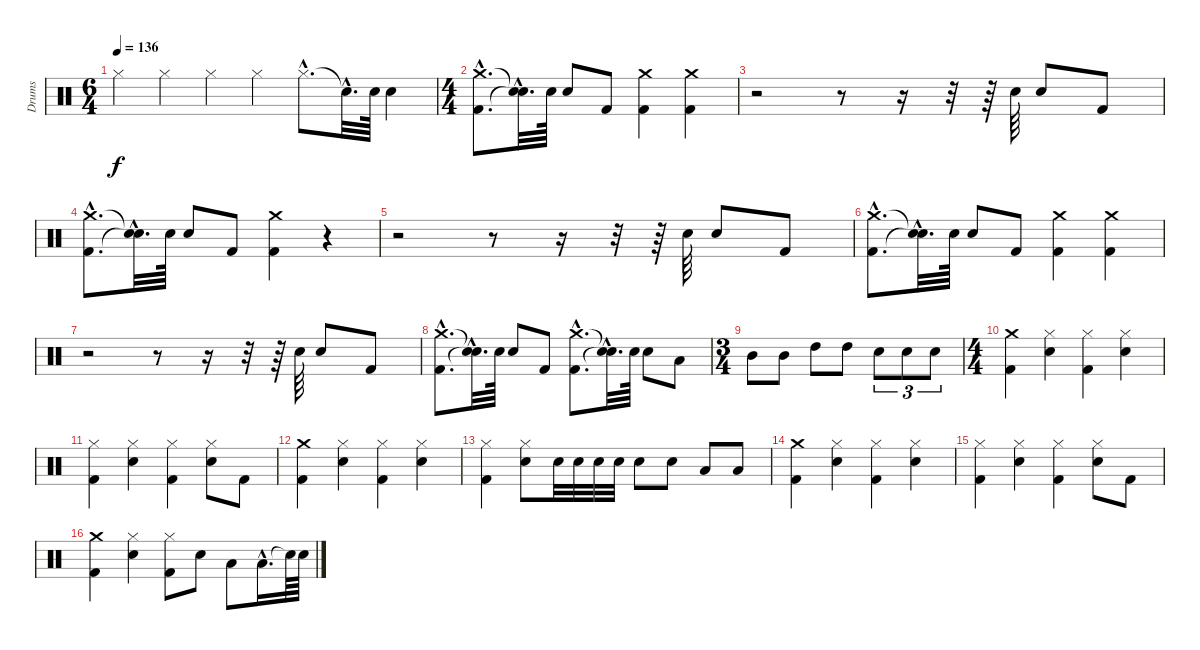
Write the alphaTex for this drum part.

\track ("Drums" "Drums") {instrument percussion}
\staff {score}
\articulation defaults
\ts (6 4)
\tempo 136
\clef neutral
\ks c "Hi-Hat (closed)".4{dy f} "Hi-Hat (closed)".4 "Hi-Hat (closed)".4 "Hi-Hat (closed)".4 "Hi-Hat (closed)"{hac}.8{d} "Snare (hit)"{hac t}.32{d} "Snare (hit) 2".64 "Snare (hit) 2".4
|
\ts (4 4)
("Kick (hit) 2"{hac} "Crash medium (hit)"{hac}).8{d} ("Snare (hit)"{hac t} "Snare (hit)"{hac t}).32{d} "Snare (hit) 2".64 "Snare (hit) 2".8 "Kick (hit) 2".8 ("Kick (hit) 2" "Crash medium (hit)").4 ("Kick (hit) 2" "Crash medium (hit)").4 |
r.2 r.8 r.16 r.32 r.64 "Snare (hit) 2".64 "Snare (hit) 2".8 "Kick (hit) 2".8 |
("Kick (hit) 2"{hac} "Crash medium (hit)"{hac}).8{d} ("Snare (hit)"{hac t} "Snare (hit)"{hac t}).32{d} "Snare (hit) 2".64 "Snare (hit) 2".8 "Kick (hit) 2".8 ("Kick (hit) 2" "Crash medium (hit)").4 r.4 |
r.2 r.8 r.16 r.32 r.64 "Snare (hit) 2".64 "Snare (hit) 2".8 "Kick (hit) 2".8 |
("Kick (hit) 2"{hac} "Crash medium (hit)"{hac}).8{d} ("Snare (hit)"{hac t} "Snare (hit)"{hac t}).32{d} "Snare (hit) 2".64 "Snare (hit) 2".8 "Kick (hit) 2".8 ("Kick (hit) 2" "Crash medium (hit)").4 ("Kick (hit) 2" "Crash medium (hit)").4 |
r.2 r.8 r.16 r.32 r.64 "Snare (hit) 2".64 "Snare (hit) 2".8 "Kick (hit) 2".8 |
("Kick (hit) 2"{hac} "Crash medium (hit)"{hac}).8{d} ("Snare (hit)"{hac t} "Snare (hit)"{hac t}).32{d} "Snare (hit) 2".64 "Snare (hit) 2".8 "Kick (hit) 2".8 ("Kick (hit) 2"{hac} "Crash medium (hit)"{hac}).8{d} ("Snare (hit)"{hac t} "Snare (hit)"{hac t}).32{d} "Snare (hit) 2".64 "Snare (hit) 2".8 "Low Tom (hit)".8 |
\ts (3 4)
"Mid Tom (hit)".8 "Mid Tom (hit)".8 "High Tom (hit)".8 "High Tom (hit)".8 "Snare (hit) 2".8{tu (3 2)} "Snare (hit) 2".8{tu (3 2)} "Snare (hit) 2".8{tu (3 2)} |
\ts (4 4)
("Kick (hit) 2" "Crash medium (hit)").4 ("Hi-Hat (closed)" "Snare (hit) 2").4 ("Kick (hit) 2" "Hi-Hat (closed)").4 ("Snare (hit) 2" "Hi-Hat (closed)").4 |
("Hi-Hat (closed)" "Kick (hit) 2").4 ("Snare (hit) 2" "Hi-Hat (closed)").4 ("Kick (hit) 2" "Hi-Hat (closed)").4 ("Hi-Hat (closed)" "Snare (hit) 2").8 "Kick (hit) 2".8 |
("Kick (hit) 2" "Crash medium (hit)").4 ("Hi-Hat (closed)" "Snare (hit) 2").4 ("Kick (hit) 2" "Hi-Hat (closed)").4 ("Snare (hit) 2" "Hi-Hat (closed)").4 |
("Kick (hit) 2" "Hi-Hat (closed)").4 ("Hi-Hat (closed)" "Snare (hit) 2").8 "Snare (hit) 2".32 "Snare (hit) 2".32 "Snare (hit) 2".32 "Snare (hit) 2".32 "Snare (hit) 2".8 "Snare (hit) 2".8 "Low Tom (hit)".8 "Low Tom (hit)".8 |
("Kick (hit) 2" "Crash medium (hit)").4 ("Hi-Hat (closed)" "Snare (hit) 2").4 ("Kick (hit) 2" "Hi-Hat (closed)").4 ("Snare (hit) 2" "Hi-Hat (closed)").4 |
("Hi-Hat (closed)" "Kick (hit) 2").4 ("Snare (hit) 2" "Hi-Hat (closed)").4 ("Kick (hit) 2" "Hi-Hat (closed)").4 ("Hi-Hat (closed)" "Snare (hit) 2").8 "Kick (hit) 2".8 |
("Kick (hit) 2" "Crash medium (hit)").4 ("Hi-Hat (closed)" "Snare (hit) 2").4 ("Hi-Hat (closed)" "Kick (hit) 2").8 "Snare (hit) 2".8 "Low Tom (hit)".8 "Low Tom (hit)"{hac}.16{d} "Snare (hit)"{t}.64 "Snare (hit) 2".64
